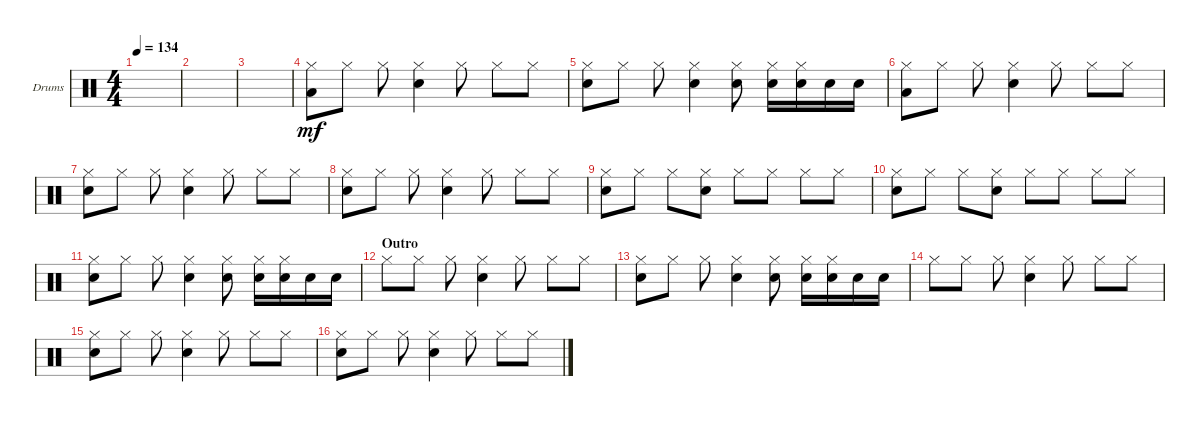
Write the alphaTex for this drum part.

\defaultSystemsLayout 4
\bracketExtendMode groupsimilarinstruments
\firstSystemTrackNameOrientation horizontal
\otherSystemsTrackNameOrientation horizontal
\track ("Drumkit" "Drums") {instrument percussion}
\staff {score}
\articulation defaults
\ts (4 4)
\tempo 134
\clef neutral
\ks c
|
|
|
("Hi-Hat (closed)" "Low Tom (hit)").8{dy mf} "Hi-Hat (closed)".8 "Hi-Hat (closed)".8 ("Hi-Hat (closed)" "Snare (hit) 2").4 "Hi-Hat (closed)".8 "Hi-Hat (closed)".8 "Hi-Hat (closed)".8 |
("Hi-Hat (closed)" "Snare (hit) 2").8 "Hi-Hat (closed)".8 "Hi-Hat (closed)".8 ("Hi-Hat (closed)" "Snare (hit) 2").4 ("Hi-Hat (closed)" "Snare (hit) 2").8 ("Hi-Hat (closed)" "Snare (hit) 2").16 ("Hi-Hat (closed)" "Snare (hit) 2").16 "Snare (hit) 2".16 "Snare (hit) 2".16 |
("Hi-Hat (closed)" "Low Tom (hit)").8 "Hi-Hat (closed)".8 "Hi-Hat (closed)".8 ("Hi-Hat (closed)" "Snare (hit) 2").4 "Hi-Hat (closed)".8 "Hi-Hat (closed)".8 "Hi-Hat (closed)".8 |
("Hi-Hat (closed)" "Snare (hit) 2").8 "Hi-Hat (closed)".8 "Hi-Hat (closed)".8 ("Hi-Hat (closed)" "Snare (hit) 2").4 "Hi-Hat (closed)".8 "Hi-Hat (closed)".8 "Hi-Hat (closed)".8 |
("Hi-Hat (closed)" "Snare (hit) 2").8 "Hi-Hat (closed)".8 "Hi-Hat (closed)".8 ("Hi-Hat (closed)" "Snare (hit) 2").4 "Hi-Hat (closed)".8 "Hi-Hat (closed)".8 "Hi-Hat (closed)".8 |
("Hi-Hat (closed)" "Snare (hit) 2").8 "Hi-Hat (closed)".8 "Hi-Hat (closed)".8 ("Hi-Hat (closed)" "Snare (hit) 2").8 "Hi-Hat (closed)".8 "Hi-Hat (closed)".8 "Hi-Hat (closed)".8 "Hi-Hat (closed)".8 |
("Hi-Hat (closed)" "Snare (hit) 2").8 "Hi-Hat (closed)".8 "Hi-Hat (closed)".8 ("Hi-Hat (closed)" "Snare (hit) 2").8 "Hi-Hat (closed)".8 "Hi-Hat (closed)".8 "Hi-Hat (closed)".8 "Hi-Hat (closed)".8 |
("Hi-Hat (closed)" "Snare (hit) 2").8 "Hi-Hat (closed)".8 "Hi-Hat (closed)".8 ("Hi-Hat (closed)" "Snare (hit) 2").4 ("Hi-Hat (closed)" "Snare (hit) 2").8 ("Hi-Hat (closed)" "Snare (hit) 2").16 ("Hi-Hat (closed)" "Snare (hit) 2").16 "Snare (hit) 2".16 "Snare (hit) 2".16 |
\section ("" "Outro")
"Hi-Hat (closed)".8 "Hi-Hat (closed)".8 "Hi-Hat (closed)".8 ("Hi-Hat (closed)" "Snare (hit) 2").4 "Hi-Hat (closed)".8 "Hi-Hat (closed)".8 "Hi-Hat (closed)".8 |
("Hi-Hat (closed)" "Snare (hit) 2").8 "Hi-Hat (closed)".8 "Hi-Hat (closed)".8 ("Hi-Hat (closed)" "Snare (hit) 2").4 ("Hi-Hat (closed)" "Snare (hit) 2").8 ("Hi-Hat (closed)" "Snare (hit) 2").16 ("Hi-Hat (closed)" "Snare (hit) 2").16 "Snare (hit) 2".16 "Snare (hit) 2".16 |
"Hi-Hat (closed)".8 "Hi-Hat (closed)".8 "Hi-Hat (closed)".8 ("Hi-Hat (closed)" "Snare (hit) 2").4 "Hi-Hat (closed)".8 "Hi-Hat (closed)".8 "Hi-Hat (closed)".8 |
("Hi-Hat (closed)" "Snare (hit) 2").8 "Hi-Hat (closed)".8 "Hi-Hat (closed)".8 ("Hi-Hat (closed)" "Snare (hit) 2").4 "Hi-Hat (closed)".8 "Hi-Hat (closed)".8 "Hi-Hat (closed)".8 |
("Hi-Hat (closed)" "Snare (hit) 2").8 "Hi-Hat (closed)".8 "Hi-Hat (closed)".8 ("Hi-Hat (closed)" "Snare (hit) 2").4 "Hi-Hat (closed)".8 "Hi-Hat (closed)".8 "Hi-Hat (closed)".8
